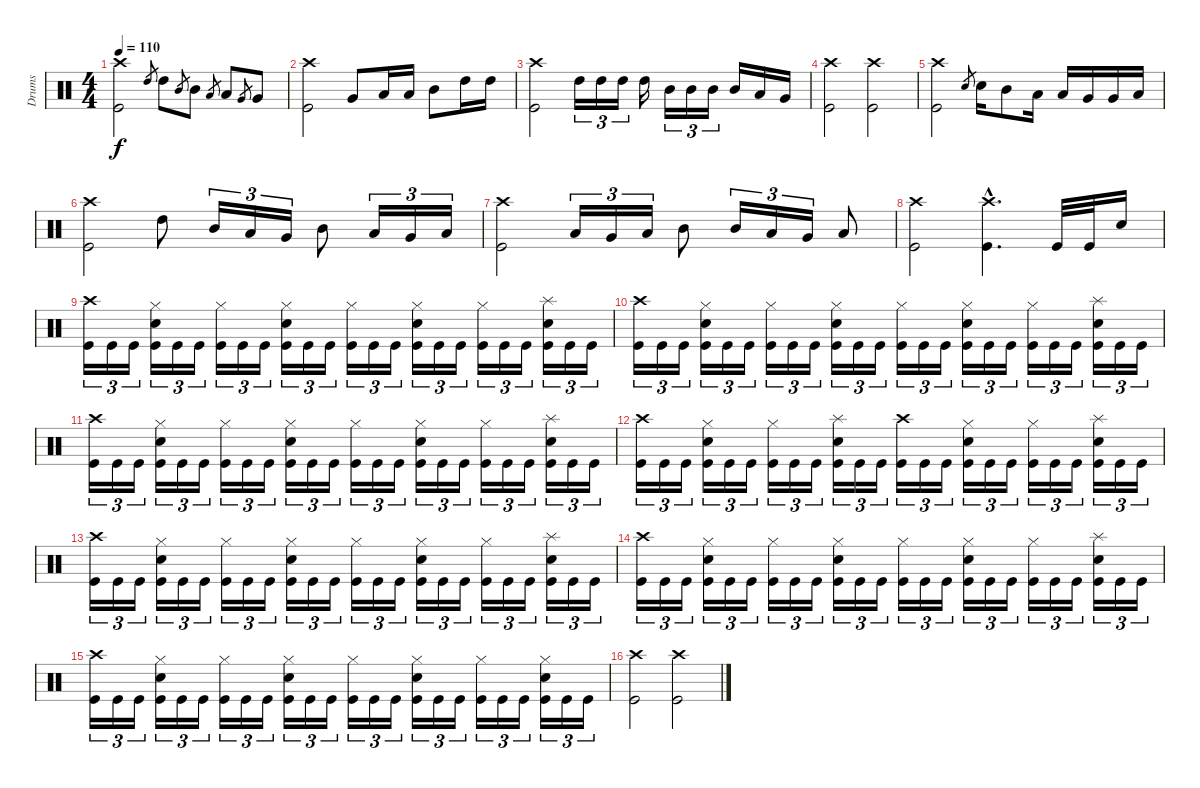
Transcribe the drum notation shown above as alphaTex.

\track ("Drums" "Drums") {instrument percussion}
\staff {score}
\articulation defaults
\ts (4 4)
\tempo 110
\clef neutral
\ks c
("Crash high (hit)" "Kick (hit)").2{dy f} "High Tom (hit)".8{gr} "High Tom (hit)".8 "Mid Tom (hit)".8{gr} "Mid Tom (hit)".8 "Low Tom (hit)".8{gr} "Low Tom (hit)".8 "Very Low Tom (hit)".8{gr} "Very Low Tom (hit)".8 |
("Crash high (hit)" "Kick (hit)").2 "Very Low Tom (hit)".8 "Low Tom (hit)".16 "Low Tom (hit)".16 "Mid Tom (hit)".8 "High Tom (hit)".16 "High Tom (hit)".16 |
("Crash high (hit)" "Kick (hit)").2 "High Tom (hit)".16{tu (3 2)} "High Tom (hit)".16{tu (3 2)} "High Tom (hit)".16{tu (3 2)} "High Tom (hit)".16 "Mid Tom (hit)".16{tu (3 2)} "Mid Tom (hit)".16{tu (3 2)} "Mid Tom (hit)".16{tu (3 2)} "Mid Tom (hit)".16 "Low Tom (hit)".16 "Very Low Tom (hit)".16 |
("Crash high (hit)" "Kick (hit)").2 ("Crash high (hit)" "Kick (hit)").2 |
("Crash high (hit)" "Kick (hit)").2 "Snare (hit) 2".8{gr} "Snare (hit) 2".16 "Mid Tom (hit)".8 "Low Tom (hit)".16 "Low Tom (hit)".16 "Very Low Tom (hit)".16 "Very Low Tom (hit)".16 "Low Floor Tom (hit)".16 |
("Crash high (hit)" "Kick (hit)").2 "High Tom (hit)".8 "Mid Tom (hit)".16{tu (3 2)} "Low Tom (hit)".16{tu (3 2)} "Very Low Tom (hit)".16{tu (3 2)} "Mid Tom (hit)".8 "Low Tom (hit)".16{tu (3 2)} "Very Low Tom (hit)".16{tu (3 2)} "Low Floor Tom (hit)".16{tu (3 2)} |
("Crash high (hit)" "Kick (hit)").2 "Low Floor Tom (hit)".16{tu (3 2)} "Very Low Tom (hit)".16{tu (3 2)} "Low Tom (hit)".16{tu (3 2)} "Mid Tom (hit)".8 "Mid Tom (hit)".16{tu (3 2)} "Low Tom (hit)".16{tu (3 2)} "Very Low Tom (hit)".16{tu (3 2)} "Low Floor Tom (hit)".8 |
("Crash high (hit)" "Kick (hit)").2 ("Crash high (hit)"{hac} "Kick (hit)"{hac}).4{d} "Kick (hit)".32 "Kick (hit)".32 "Snare (hit) 2".16 |
("Crash high (hit)" "Kick (hit)").16{tu (3 2)} "Kick (hit)".16{tu (3 2)} "Kick (hit)".16{tu (3 2)} ("Hi-Hat (closed)" "Snare (hit) 2" "Kick (hit)").16{tu (3 2)} "Kick (hit)".16{tu (3 2)} "Kick (hit)".16{tu (3 2)} ("Hi-Hat (closed)" "Kick (hit)").16{tu (3 2)} "Kick (hit)".16{tu (3 2)} "Kick (hit)".16{tu (3 2)} ("Hi-Hat (closed)" "Snare (hit) 2" "Kick (hit)").16{tu (3 2)} "Kick (hit)".16{tu (3 2)} "Kick (hit)".16{tu (3 2)} ("Hi-Hat (closed)" "Kick (hit)").16{tu (3 2)} "Kick (hit)".16{tu (3 2)} "Kick (hit)".16{tu (3 2)} ("Hi-Hat (closed)" "Snare (hit) 2" "Kick (hit)").16{tu (3 2)} "Kick (hit)".16{tu (3 2)} "Kick (hit)".16{tu (3 2)} ("Hi-Hat (closed)" "Kick (hit)").16{tu (3 2)} "Kick (hit)".16{tu (3 2)} "Kick (hit)".16{tu (3 2)} ("Splash (hit)" "Snare (hit) 2" "Kick (hit)").16{tu (3 2)} "Kick (hit)".16{tu (3 2)} "Kick (hit)".16{tu (3 2)} |
("Crash high (hit)" "Kick (hit)").16{tu (3 2)} "Kick (hit)".16{tu (3 2)} "Kick (hit)".16{tu (3 2)} ("Hi-Hat (closed)" "Snare (hit) 2" "Kick (hit)").16{tu (3 2)} "Kick (hit)".16{tu (3 2)} "Kick (hit)".16{tu (3 2)} ("Hi-Hat (closed)" "Kick (hit)").16{tu (3 2)} "Kick (hit)".16{tu (3 2)} "Kick (hit)".16{tu (3 2)} ("Hi-Hat (closed)" "Snare (hit) 2" "Kick (hit)").16{tu (3 2)} "Kick (hit)".16{tu (3 2)} "Kick (hit)".16{tu (3 2)} ("Hi-Hat (closed)" "Kick (hit)").16{tu (3 2)} "Kick (hit)".16{tu (3 2)} "Kick (hit)".16{tu (3 2)} ("Hi-Hat (closed)" "Snare (hit) 2" "Kick (hit)").16{tu (3 2)} "Kick (hit)".16{tu (3 2)} "Kick (hit)".16{tu (3 2)} ("Hi-Hat (closed)" "Kick (hit)").16{tu (3 2)} "Kick (hit)".16{tu (3 2)} "Kick (hit)".16{tu (3 2)} ("Splash (hit)" "Snare (hit) 2" "Kick (hit)").16{tu (3 2)} "Kick (hit)".16{tu (3 2)} "Kick (hit)".16{tu (3 2)} |
("Crash high (hit)" "Kick (hit)").16{tu (3 2)} "Kick (hit)".16{tu (3 2)} "Kick (hit)".16{tu (3 2)} ("Hi-Hat (closed)" "Snare (hit) 2" "Kick (hit)").16{tu (3 2)} "Kick (hit)".16{tu (3 2)} "Kick (hit)".16{tu (3 2)} ("Hi-Hat (closed)" "Kick (hit)").16{tu (3 2)} "Kick (hit)".16{tu (3 2)} "Kick (hit)".16{tu (3 2)} ("Hi-Hat (closed)" "Snare (hit) 2" "Kick (hit)").16{tu (3 2)} "Kick (hit)".16{tu (3 2)} "Kick (hit)".16{tu (3 2)} ("Hi-Hat (closed)" "Kick (hit)").16{tu (3 2)} "Kick (hit)".16{tu (3 2)} "Kick (hit)".16{tu (3 2)} ("Hi-Hat (closed)" "Snare (hit) 2" "Kick (hit)").16{tu (3 2)} "Kick (hit)".16{tu (3 2)} "Kick (hit)".16{tu (3 2)} ("Hi-Hat (closed)" "Kick (hit)").16{tu (3 2)} "Kick (hit)".16{tu (3 2)} "Kick (hit)".16{tu (3 2)} ("Splash (hit)" "Snare (hit) 2" "Kick (hit)").16{tu (3 2)} "Kick (hit)".16{tu (3 2)} "Kick (hit)".16{tu (3 2)} |
("Crash high (hit)" "Kick (hit)").16{tu (3 2)} "Kick (hit)".16{tu (3 2)} "Kick (hit)".16{tu (3 2)} ("Hi-Hat (closed)" "Snare (hit) 2" "Kick (hit)").16{tu (3 2)} "Kick (hit)".16{tu (3 2)} "Kick (hit)".16{tu (3 2)} ("Hi-Hat (closed)" "Kick (hit)").16{tu (3 2)} "Kick (hit)".16{tu (3 2)} "Kick (hit)".16{tu (3 2)} ("Splash (hit)" "Snare (hit) 2" "Kick (hit)").16{tu (3 2)} "Kick (hit)".16{tu (3 2)} "Kick (hit)".16{tu (3 2)} ("Crash high (hit)" "Kick (hit)").16{tu (3 2)} "Kick (hit)".16{tu (3 2)} "Kick (hit)".16{tu (3 2)} ("Hi-Hat (closed)" "Snare (hit) 2" "Kick (hit)").16{tu (3 2)} "Kick (hit)".16{tu (3 2)} "Kick (hit)".16{tu (3 2)} ("Hi-Hat (closed)" "Kick (hit)").16{tu (3 2)} "Kick (hit)".16{tu (3 2)} "Kick (hit)".16{tu (3 2)} ("Splash (hit)" "Snare (hit) 2" "Kick (hit)").16{tu (3 2)} "Kick (hit)".16{tu (3 2)} "Kick (hit)".16{tu (3 2)} |
("Crash high (hit)" "Kick (hit)").16{tu (3 2)} "Kick (hit)".16{tu (3 2)} "Kick (hit)".16{tu (3 2)} ("Hi-Hat (closed)" "Snare (hit) 2" "Kick (hit)").16{tu (3 2)} "Kick (hit)".16{tu (3 2)} "Kick (hit)".16{tu (3 2)} ("Hi-Hat (closed)" "Kick (hit)").16{tu (3 2)} "Kick (hit)".16{tu (3 2)} "Kick (hit)".16{tu (3 2)} ("Hi-Hat (closed)" "Snare (hit) 2" "Kick (hit)").16{tu (3 2)} "Kick (hit)".16{tu (3 2)} "Kick (hit)".16{tu (3 2)} ("Hi-Hat (closed)" "Kick (hit)").16{tu (3 2)} "Kick (hit)".16{tu (3 2)} "Kick (hit)".16{tu (3 2)} ("Hi-Hat (closed)" "Snare (hit) 2" "Kick (hit)").16{tu (3 2)} "Kick (hit)".16{tu (3 2)} "Kick (hit)".16{tu (3 2)} ("Hi-Hat (closed)" "Kick (hit)").16{tu (3 2)} "Kick (hit)".16{tu (3 2)} "Kick (hit)".16{tu (3 2)} ("Splash (hit)" "Snare (hit) 2" "Kick (hit)").16{tu (3 2)} "Kick (hit)".16{tu (3 2)} "Kick (hit)".16{tu (3 2)} |
("Crash high (hit)" "Kick (hit)").16{tu (3 2)} "Kick (hit)".16{tu (3 2)} "Kick (hit)".16{tu (3 2)} ("Hi-Hat (closed)" "Snare (hit) 2" "Kick (hit)").16{tu (3 2)} "Kick (hit)".16{tu (3 2)} "Kick (hit)".16{tu (3 2)} ("Hi-Hat (closed)" "Kick (hit)").16{tu (3 2)} "Kick (hit)".16{tu (3 2)} "Kick (hit)".16{tu (3 2)} ("Hi-Hat (closed)" "Snare (hit) 2" "Kick (hit)").16{tu (3 2)} "Kick (hit)".16{tu (3 2)} "Kick (hit)".16{tu (3 2)} ("Hi-Hat (closed)" "Kick (hit)").16{tu (3 2)} "Kick (hit)".16{tu (3 2)} "Kick (hit)".16{tu (3 2)} ("Hi-Hat (closed)" "Snare (hit) 2" "Kick (hit)").16{tu (3 2)} "Kick (hit)".16{tu (3 2)} "Kick (hit)".16{tu (3 2)} ("Hi-Hat (closed)" "Kick (hit)").16{tu (3 2)} "Kick (hit)".16{tu (3 2)} "Kick (hit)".16{tu (3 2)} ("Splash (hit)" "Snare (hit) 2" "Kick (hit)").16{tu (3 2)} "Kick (hit)".16{tu (3 2)} "Kick (hit)".16{tu (3 2)} |
("Crash high (hit)" "Kick (hit)").16{tu (3 2)} "Kick (hit)".16{tu (3 2)} "Kick (hit)".16{tu (3 2)} ("Hi-Hat (closed)" "Snare (hit) 2" "Kick (hit)").16{tu (3 2)} "Kick (hit)".16{tu (3 2)} "Kick (hit)".16{tu (3 2)} ("Hi-Hat (closed)" "Kick (hit)").16{tu (3 2)} "Kick (hit)".16{tu (3 2)} "Kick (hit)".16{tu (3 2)} ("Hi-Hat (closed)" "Snare (hit) 2" "Kick (hit)").16{tu (3 2)} "Kick (hit)".16{tu (3 2)} "Kick (hit)".16{tu (3 2)} ("Hi-Hat (closed)" "Kick (hit)").16{tu (3 2)} "Kick (hit)".16{tu (3 2)} "Kick (hit)".16{tu (3 2)} ("Hi-Hat (closed)" "Snare (hit) 2" "Kick (hit)").16{tu (3 2)} "Kick (hit)".16{tu (3 2)} "Kick (hit)".16{tu (3 2)} ("Hi-Hat (closed)" "Kick (hit)").16{tu (3 2)} "Kick (hit)".16{tu (3 2)} "Kick (hit)".16{tu (3 2)} ("Hi-Hat (closed)" "Snare (hit) 2" "Kick (hit)").16{tu (3 2)} "Kick (hit)".16{tu (3 2)} "Kick (hit)".16{tu (3 2)} |
("Crash high (hit)" "Kick (hit)").2 ("Crash high (hit)" "Kick (hit)").2
